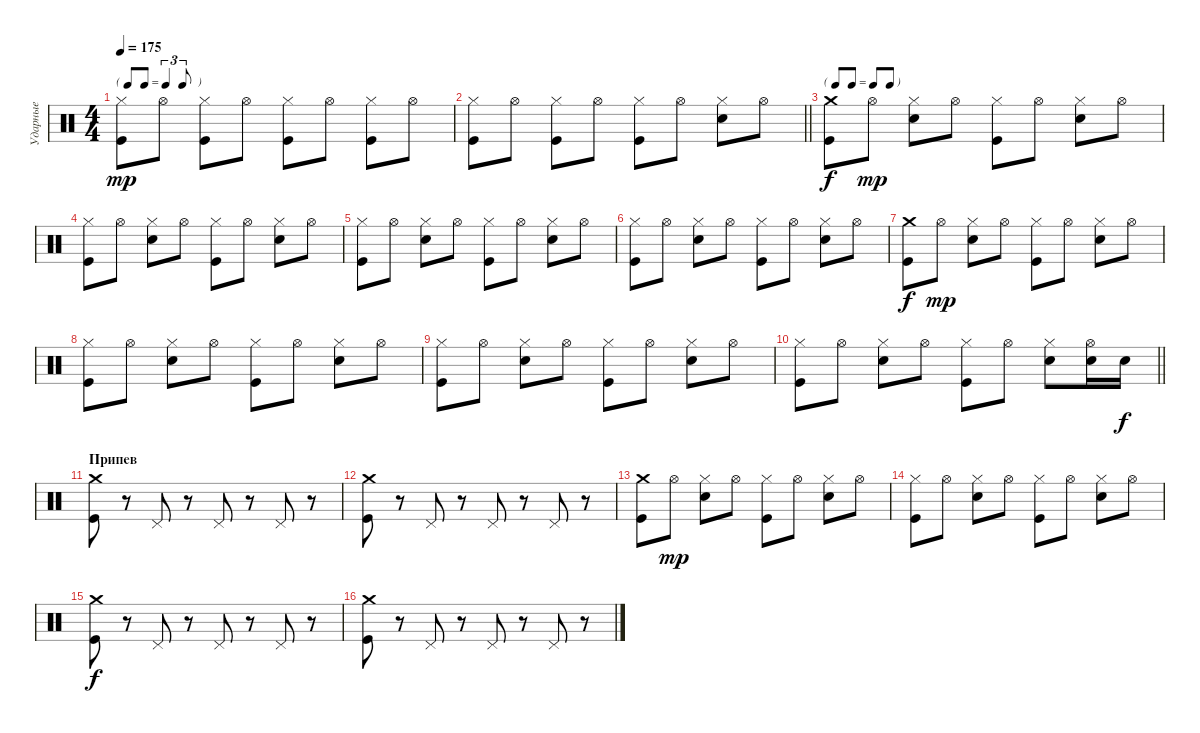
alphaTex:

\track ("Ударные" "Ударные") {instrument percussion}
\staff {score}
\articulation defaults
\ts (4 4)
\tf triplet8th
\tempo 175
\clef neutral
\ks c
("Hi-Hat (closed)" "Kick (hit)").8{dy mp} "Hi-Hat (open)".8 ("Hi-Hat (closed)" "Kick (hit)").8 "Hi-Hat (open)".8 ("Hi-Hat (closed)" "Kick (hit)").8 "Hi-Hat (open)".8 ("Hi-Hat (closed)" "Kick (hit)").8 "Hi-Hat (open)".8 |
\barLineRight lightlight
("Hi-Hat (closed)" "Kick (hit)").8 "Hi-Hat (open)".8 ("Hi-Hat (closed)" "Kick (hit)").8 "Hi-Hat (open)".8 ("Hi-Hat (closed)" "Kick (hit)").8 "Hi-Hat (open)".8 ("Hi-Hat (closed)" "Electric Snare (hit)").8 "Hi-Hat (open)".8 |
\tf none
\section ("" " ")
("Crash medium (hit)" "Kick (hit)").8{dy f} "Hi-Hat (open)".8{dy mp} ("Hi-Hat (closed)" "Electric Snare (hit)").8 "Hi-Hat (open)".8 ("Hi-Hat (closed)" "Kick (hit)").8 "Hi-Hat (open)".8 ("Hi-Hat (closed)" "Electric Snare (hit)").8 "Hi-Hat (open)".8 |
("Hi-Hat (closed)" "Kick (hit)").8 "Hi-Hat (open)".8 ("Hi-Hat (closed)" "Electric Snare (hit)").8 "Hi-Hat (open)".8 ("Hi-Hat (closed)" "Kick (hit)").8 "Hi-Hat (open)".8 ("Hi-Hat (closed)" "Electric Snare (hit)").8 "Hi-Hat (open)".8 |
("Hi-Hat (closed)" "Kick (hit)").8 "Hi-Hat (open)".8 ("Hi-Hat (closed)" "Electric Snare (hit)").8 "Hi-Hat (open)".8 ("Hi-Hat (closed)" "Kick (hit)").8 "Hi-Hat (open)".8 ("Hi-Hat (closed)" "Electric Snare (hit)").8 "Hi-Hat (open)".8 |
("Hi-Hat (closed)" "Kick (hit)").8 "Hi-Hat (open)".8 ("Hi-Hat (closed)" "Electric Snare (hit)").8 "Hi-Hat (open)".8 ("Hi-Hat (closed)" "Kick (hit)").8 "Hi-Hat (open)".8 ("Hi-Hat (closed)" "Electric Snare (hit)").8 "Hi-Hat (open)".8 |
("Crash medium (hit)" "Kick (hit)").8{dy f} "Hi-Hat (open)".8{dy mp} ("Hi-Hat (closed)" "Electric Snare (hit)").8 "Hi-Hat (open)".8 ("Hi-Hat (closed)" "Kick (hit)").8 "Hi-Hat (open)".8 ("Hi-Hat (closed)" "Electric Snare (hit)").8 "Hi-Hat (open)".8 |
("Hi-Hat (closed)" "Kick (hit)").8 "Hi-Hat (open)".8 ("Hi-Hat (closed)" "Electric Snare (hit)").8 "Hi-Hat (open)".8 ("Hi-Hat (closed)" "Kick (hit)").8 "Hi-Hat (open)".8 ("Hi-Hat (closed)" "Electric Snare (hit)").8 "Hi-Hat (open)".8 |
("Hi-Hat (closed)" "Kick (hit)").8 "Hi-Hat (open)".8 ("Hi-Hat (closed)" "Electric Snare (hit)").8 "Hi-Hat (open)".8 ("Hi-Hat (closed)" "Kick (hit)").8 "Hi-Hat (open)".8 ("Hi-Hat (closed)" "Electric Snare (hit)").8 "Hi-Hat (open)".8 |
\barLineRight lightlight
("Hi-Hat (closed)" "Kick (hit)").8 "Hi-Hat (open)".8 ("Hi-Hat (closed)" "Electric Snare (hit)").8 "Hi-Hat (open)".8 ("Hi-Hat (closed)" "Kick (hit)").8 "Hi-Hat (open)".8 ("Hi-Hat (closed)" "Electric Snare (hit)").8 ("Hi-Hat (open)" "Electric Snare (hit)").16 "Electric Snare (hit)".16{dy f} |
\section ("" "Припев")
("Crash medium (hit)" "Kick (hit)").8 r.8 "Pedal Hi-Hat (hit)".8 r.8 "Pedal Hi-Hat (hit)".8 r.8 "Pedal Hi-Hat (hit)".8 r.8 |
("Crash medium (hit)" "Kick (hit)").8 r.8 "Pedal Hi-Hat (hit)".8 r.8 "Pedal Hi-Hat (hit)".8 r.8 "Pedal Hi-Hat (hit)".8 r.8 |
("Crash medium (hit)" "Kick (hit)").8 "Hi-Hat (open)".8{dy mp} ("Hi-Hat (closed)" "Electric Snare (hit)").8 "Hi-Hat (open)".8 ("Hi-Hat (closed)" "Kick (hit)").8 "Hi-Hat (open)".8 ("Hi-Hat (closed)" "Electric Snare (hit)").8 "Hi-Hat (open)".8 |
("Hi-Hat (closed)" "Kick (hit)").8 "Hi-Hat (open)".8 ("Hi-Hat (closed)" "Electric Snare (hit)").8 "Hi-Hat (open)".8 ("Hi-Hat (closed)" "Kick (hit)").8 "Hi-Hat (open)".8 ("Hi-Hat (closed)" "Electric Snare (hit)").8 "Hi-Hat (open)".8 |
("Crash medium (hit)" "Kick (hit)").8{dy f} r.8 "Pedal Hi-Hat (hit)".8 r.8 "Pedal Hi-Hat (hit)".8 r.8 "Pedal Hi-Hat (hit)".8 r.8 |
("Crash medium (hit)" "Kick (hit)").8 r.8 "Pedal Hi-Hat (hit)".8 r.8 "Pedal Hi-Hat (hit)".8 r.8 "Pedal Hi-Hat (hit)".8 r.8
